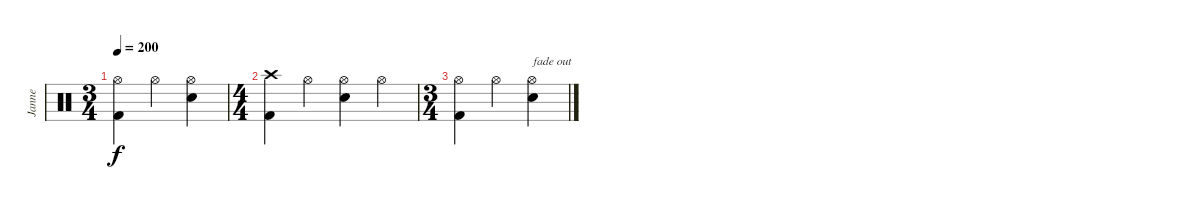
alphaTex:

\track ("Janne" "Janne") {instrument percussion}
\staff {score}
\articulation defaults
\ts (3 4)
\tempo 200
\clef neutral
\ks c
("Hi-Hat (open)" "Kick (hit) 2").4{dy f} "Hi-Hat (open)".4 ("Hi-Hat (open)" "Electric Snare (hit)").4 |
\ts (4 4)
("Crash high (hit)" "Kick (hit) 2").4 "Hi-Hat (open)".4 ("Hi-Hat (open)" "Electric Snare (hit)").4 "Hi-Hat (open)".4 |
\ts (3 4)
("Hi-Hat (open)" "Kick (hit) 2").4 "Hi-Hat (open)".4 ("Hi-Hat (open)" "Electric Snare (hit)").4{txt "fade out"}
